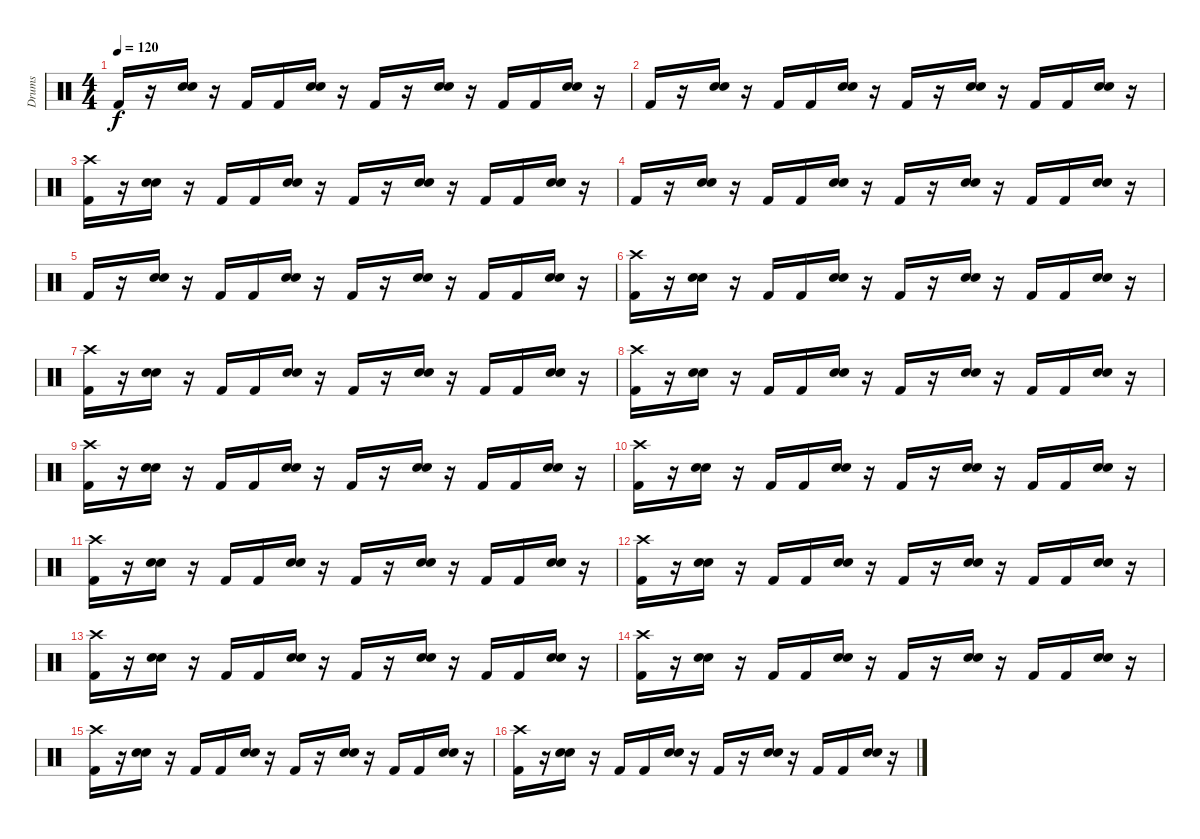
\track ("Drums" "Drums") {instrument percussion}
\staff {score}
\articulation defaults
\ts (4 4)
\tempo 120
\clef neutral
\ks c "Kick (hit) 2".16{dy f}
r.16 ("Snare (hit) 2" "Snare (hit) 2").16 r.16 "Kick (hit) 2".16 "Kick (hit) 2".16 ("Snare (hit) 2" "Snare (hit) 2").16 r.16 "Kick (hit) 2".16 r.16 ("Snare (hit) 2" "Snare (hit) 2").16 r.16 "Kick (hit) 2".16 "Kick (hit) 2".16 ("Snare (hit) 2" "Snare (hit) 2").16 r.16 |
"Kick (hit) 2".16 r.16 ("Snare (hit) 2" "Snare (hit) 2").16 r.16 "Kick (hit) 2".16 "Kick (hit) 2".16 ("Snare (hit) 2" "Snare (hit) 2").16 r.16 "Kick (hit) 2".16 r.16 ("Snare (hit) 2" "Snare (hit) 2").16 r.16 "Kick (hit) 2".16 "Kick (hit) 2".16 ("Snare (hit) 2" "Snare (hit) 2").16 r.16 |
("Crash high (hit)" "Kick (hit) 2").16 r.16 ("Snare (hit) 2" "Snare (hit) 2").16 r.16 "Kick (hit) 2".16 "Kick (hit) 2".16 ("Snare (hit) 2" "Snare (hit) 2").16 r.16 "Kick (hit) 2".16 r.16 ("Snare (hit) 2" "Snare (hit) 2").16 r.16 "Kick (hit) 2".16 "Kick (hit) 2".16 ("Snare (hit) 2" "Snare (hit) 2").16 r.16 |
"Kick (hit) 2".16 r.16 ("Snare (hit) 2" "Snare (hit) 2").16 r.16 "Kick (hit) 2".16 "Kick (hit) 2".16 ("Snare (hit) 2" "Snare (hit) 2").16 r.16 "Kick (hit) 2".16 r.16 ("Snare (hit) 2" "Snare (hit) 2").16 r.16 "Kick (hit) 2".16 "Kick (hit) 2".16 ("Snare (hit) 2" "Snare (hit) 2").16 r.16 |
"Kick (hit) 2".16 r.16 ("Snare (hit) 2" "Snare (hit) 2").16 r.16 "Kick (hit) 2".16 "Kick (hit) 2".16 ("Snare (hit) 2" "Snare (hit) 2").16 r.16 "Kick (hit) 2".16 r.16 ("Snare (hit) 2" "Snare (hit) 2").16 r.16 "Kick (hit) 2".16 "Kick (hit) 2".16 ("Snare (hit) 2" "Snare (hit) 2").16 r.16 |
("Crash high (hit)" "Kick (hit) 2").16 r.16 ("Snare (hit) 2" "Snare (hit) 2").16 r.16 "Kick (hit) 2".16 "Kick (hit) 2".16 ("Snare (hit) 2" "Snare (hit) 2").16 r.16 "Kick (hit) 2".16 r.16 ("Snare (hit) 2" "Snare (hit) 2").16 r.16 "Kick (hit) 2".16 "Kick (hit) 2".16 ("Snare (hit) 2" "Snare (hit) 2").16 r.16 |
("Crash high (hit)" "Kick (hit) 2").16 r.16 ("Snare (hit) 2" "Snare (hit) 2").16 r.16 "Kick (hit) 2".16 "Kick (hit) 2".16 ("Snare (hit) 2" "Snare (hit) 2").16 r.16 "Kick (hit) 2".16 r.16 ("Snare (hit) 2" "Snare (hit) 2").16 r.16 "Kick (hit) 2".16 "Kick (hit) 2".16 ("Snare (hit) 2" "Snare (hit) 2").16 r.16 |
("Crash high (hit)" "Kick (hit) 2").16 r.16 ("Snare (hit) 2" "Snare (hit) 2").16 r.16 "Kick (hit) 2".16 "Kick (hit) 2".16 ("Snare (hit) 2" "Snare (hit) 2").16 r.16 "Kick (hit) 2".16 r.16 ("Snare (hit) 2" "Snare (hit) 2").16 r.16 "Kick (hit) 2".16 "Kick (hit) 2".16 ("Snare (hit) 2" "Snare (hit) 2").16 r.16 |
("Crash high (hit)" "Kick (hit) 2").16 r.16 ("Snare (hit) 2" "Snare (hit) 2").16 r.16 "Kick (hit) 2".16 "Kick (hit) 2".16 ("Snare (hit) 2" "Snare (hit) 2").16 r.16 "Kick (hit) 2".16 r.16 ("Snare (hit) 2" "Snare (hit) 2").16 r.16 "Kick (hit) 2".16 "Kick (hit) 2".16 ("Snare (hit) 2" "Snare (hit) 2").16 r.16 |
("Crash high (hit)" "Kick (hit) 2").16 r.16 ("Snare (hit) 2" "Snare (hit) 2").16 r.16 "Kick (hit) 2".16 "Kick (hit) 2".16 ("Snare (hit) 2" "Snare (hit) 2").16 r.16 "Kick (hit) 2".16 r.16 ("Snare (hit) 2" "Snare (hit) 2").16 r.16 "Kick (hit) 2".16 "Kick (hit) 2".16 ("Snare (hit) 2" "Snare (hit) 2").16 r.16 |
("Crash high (hit)" "Kick (hit) 2").16 r.16 ("Snare (hit) 2" "Snare (hit) 2").16 r.16 "Kick (hit) 2".16 "Kick (hit) 2".16 ("Snare (hit) 2" "Snare (hit) 2").16 r.16 "Kick (hit) 2".16 r.16 ("Snare (hit) 2" "Snare (hit) 2").16 r.16 "Kick (hit) 2".16 "Kick (hit) 2".16 ("Snare (hit) 2" "Snare (hit) 2").16 r.16 |
("Crash high (hit)" "Kick (hit) 2").16 r.16 ("Snare (hit) 2" "Snare (hit) 2").16 r.16 "Kick (hit) 2".16 "Kick (hit) 2".16 ("Snare (hit) 2" "Snare (hit) 2").16 r.16 "Kick (hit) 2".16 r.16 ("Snare (hit) 2" "Snare (hit) 2").16 r.16 "Kick (hit) 2".16 "Kick (hit) 2".16 ("Snare (hit) 2" "Snare (hit) 2").16 r.16 |
("Crash high (hit)" "Kick (hit) 2").16 r.16 ("Snare (hit) 2" "Snare (hit) 2").16 r.16 "Kick (hit) 2".16 "Kick (hit) 2".16 ("Snare (hit) 2" "Snare (hit) 2").16 r.16 "Kick (hit) 2".16 r.16 ("Snare (hit) 2" "Snare (hit) 2").16 r.16 "Kick (hit) 2".16 "Kick (hit) 2".16 ("Snare (hit) 2" "Snare (hit) 2").16 r.16 |
("Crash high (hit)" "Kick (hit) 2").16 r.16 ("Snare (hit) 2" "Snare (hit) 2").16 r.16 "Kick (hit) 2".16 "Kick (hit) 2".16 ("Snare (hit) 2" "Snare (hit) 2").16 r.16 "Kick (hit) 2".16 r.16 ("Snare (hit) 2" "Snare (hit) 2").16 r.16 "Kick (hit) 2".16 "Kick (hit) 2".16 ("Snare (hit) 2" "Snare (hit) 2").16 r.16 |
("Crash high (hit)" "Kick (hit) 2").16 r.16 ("Snare (hit) 2" "Snare (hit) 2").16 r.16 "Kick (hit) 2".16 "Kick (hit) 2".16 ("Snare (hit) 2" "Snare (hit) 2").16 r.16 "Kick (hit) 2".16 r.16 ("Snare (hit) 2" "Snare (hit) 2").16 r.16 "Kick (hit) 2".16 "Kick (hit) 2".16 ("Snare (hit) 2" "Snare (hit) 2").16 r.16 |
("Crash high (hit)" "Kick (hit) 2").16 r.16 ("Snare (hit) 2" "Snare (hit) 2").16 r.16 "Kick (hit) 2".16 "Kick (hit) 2".16 ("Snare (hit) 2" "Snare (hit) 2").16 r.16 "Kick (hit) 2".16 r.16 ("Snare (hit) 2" "Snare (hit) 2").16 r.16 "Kick (hit) 2".16 "Kick (hit) 2".16 ("Snare (hit) 2" "Snare (hit) 2").16 r.16
